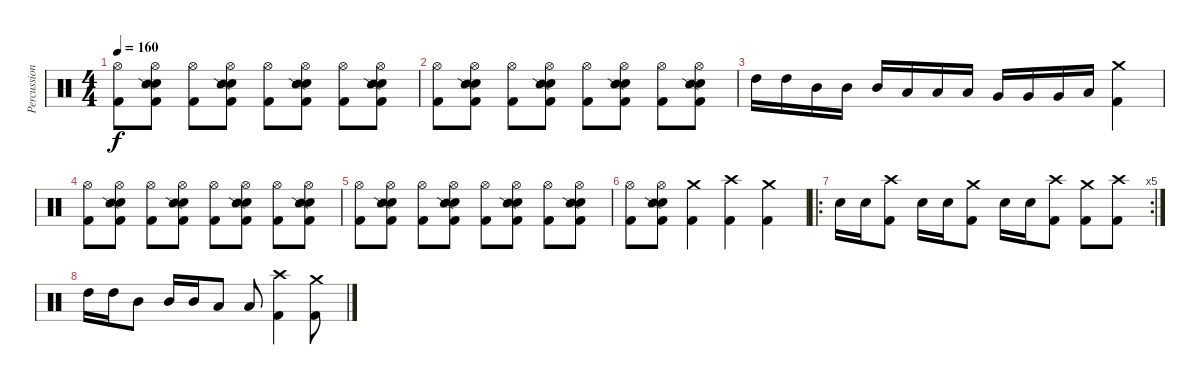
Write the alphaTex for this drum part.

\track ("Percussion" "Percussion") {instrument percussion}
\staff {score}
\articulation defaults
\ts (4 4)
\tempo 160
\clef neutral
\ks c
("Hi-Hat (open)" "Kick (hit) 2").8{dy f} ("Hi-Hat (open)" "Electric Snare (hit)" "Snare (side stick) 2" "Kick (hit) 2").8 ("Hi-Hat (open)" "Kick (hit) 2").8 ("Hi-Hat (open)" "Electric Snare (hit)" "Snare (side stick) 2" "Kick (hit) 2").8 ("Hi-Hat (open)" "Kick (hit) 2").8 ("Hi-Hat (open)" "Electric Snare (hit)" "Snare (side stick) 2" "Kick (hit) 2").8 ("Hi-Hat (open)" "Kick (hit) 2").8 ("Hi-Hat (open)" "Electric Snare (hit)" "Snare (side stick) 2" "Kick (hit) 2").8 |
("Hi-Hat (open)" "Kick (hit) 2").8 ("Hi-Hat (open)" "Electric Snare (hit)" "Snare (side stick) 2" "Kick (hit) 2").8 ("Hi-Hat (open)" "Kick (hit) 2").8 ("Hi-Hat (open)" "Electric Snare (hit)" "Snare (side stick) 2" "Kick (hit) 2").8 ("Hi-Hat (open)" "Kick (hit) 2").8 ("Hi-Hat (open)" "Electric Snare (hit)" "Snare (side stick) 2" "Kick (hit) 2").8 ("Hi-Hat (open)" "Kick (hit) 2").8 ("Hi-Hat (open)" "Electric Snare (hit)" "Snare (side stick) 2" "Kick (hit) 2").8 |
"High Tom (hit)".16 "High Tom (hit)".16 "Mid Tom (hit)".16 "Mid Tom (hit)".16 "Mid Tom (hit)".16 "Low Tom (hit)".16 "Low Tom (hit)".16 "Low Tom (hit)".16 "Very Low Tom (hit)".16 "Very Low Tom (hit)".16 "Very Low Tom (hit)".16 "Low Floor Tom (hit)".16 ("Crash medium (hit)" "Kick (hit) 2").4 |
("Hi-Hat (open)" "Kick (hit) 2").8 ("Hi-Hat (open)" "Electric Snare (hit)" "Snare (side stick) 2" "Kick (hit) 2").8 ("Hi-Hat (open)" "Kick (hit) 2").8 ("Hi-Hat (open)" "Electric Snare (hit)" "Snare (side stick) 2" "Kick (hit) 2").8 ("Hi-Hat (open)" "Kick (hit) 2").8 ("Hi-Hat (open)" "Electric Snare (hit)" "Snare (side stick) 2" "Kick (hit) 2").8 ("Hi-Hat (open)" "Kick (hit) 2").8 ("Hi-Hat (open)" "Electric Snare (hit)" "Snare (side stick) 2" "Kick (hit) 2").8 |
("Hi-Hat (open)" "Kick (hit) 2").8 ("Hi-Hat (open)" "Electric Snare (hit)" "Snare (side stick) 2" "Kick (hit) 2").8 ("Hi-Hat (open)" "Kick (hit) 2").8 ("Hi-Hat (open)" "Electric Snare (hit)" "Snare (side stick) 2" "Kick (hit) 2").8 ("Hi-Hat (open)" "Kick (hit) 2").8 ("Hi-Hat (open)" "Electric Snare (hit)" "Snare (side stick) 2" "Kick (hit) 2").8 ("Hi-Hat (open)" "Kick (hit) 2").8 ("Hi-Hat (open)" "Electric Snare (hit)" "Snare (side stick) 2" "Kick (hit) 2").8 |
("Hi-Hat (open)" "Kick (hit) 2").8 ("Hi-Hat (open)" "Electric Snare (hit)" "Snare (side stick) 2" "Kick (hit) 2").8 ("Crash medium (hit)" "Kick (hit) 2").4 ("Crash high (hit)" "Kick (hit) 2").4 ("Crash medium (hit)" "Kick (hit) 2").4 |
\ro
\rc 5 "Electric Snare (hit)".16 "Electric Snare (hit)".16
("Crash high (hit)" "Kick (hit) 2").8 "Electric Snare (hit)".16 "Electric Snare (hit)".16 ("Crash medium (hit)" "Kick (hit) 2").8 "Electric Snare (hit)".16 "Electric Snare (hit)".16 ("Crash high (hit)" "Kick (hit) 2").8 ("Crash medium (hit)" "Kick (hit) 2").8 ("Crash high (hit)" "Kick (hit) 2").8 |
"High Tom (hit)".16 "High Tom (hit)".16 "Mid Tom (hit)".8 "Mid Tom (hit)".16 "Mid Tom (hit)".16 "Low Tom (hit)".8 "Low Floor Tom (hit)".8 ("Crash high (hit)" "Kick (hit) 2").4 ("Crash medium (hit)" "Kick (hit) 2").8
